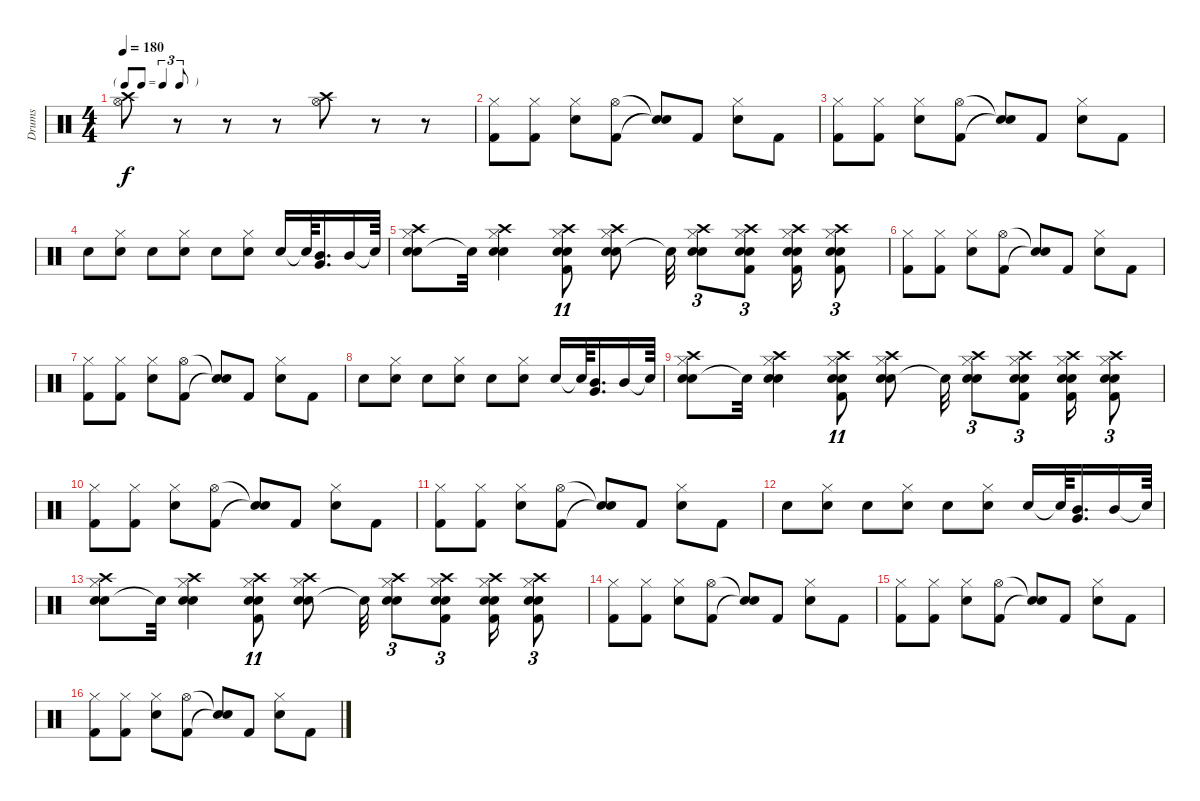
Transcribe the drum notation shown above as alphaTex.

\track ("Drums" "Drums") {instrument percussion}
\staff {score}
\articulation defaults
\ts (4 4)
\tf triplet8th
\tempo 180
\clef neutral
\ks c
("Hi-Hat (open)" "Crash high (hit)").8{dy f} r.8 r.8 r.8 ("Hi-Hat (open)" "Crash high (hit)").8 r.8 r.8 |
("Hi-Hat (closed)" "Kick (hit) 2").8 ("Hi-Hat (closed)" "Kick (hit) 2").8 ("Hi-Hat (closed)" "Electric Snare (hit)").8 ("Hi-Hat (open)" "Kick (hit) 2").8 ("Snare (hit)"{t} "Snare (hit)"{t}).8 "Kick (hit) 2".8 ("Hi-Hat (closed)" "Electric Snare (hit)").8 "Kick (hit) 2".8 |
("Hi-Hat (closed)" "Kick (hit) 2").8 ("Hi-Hat (closed)" "Kick (hit) 2").8 ("Hi-Hat (closed)" "Electric Snare (hit)").8 ("Hi-Hat (open)" "Kick (hit) 2").8 ("Snare (hit)"{t} "Snare (hit)"{t}).8 "Kick (hit) 2".8 ("Hi-Hat (closed)" "Electric Snare (hit)").8 "Kick (hit) 2".8 |
"Snare (hit) 2".8 ("Hi-Hat (closed)" "Snare (hit) 2").8 "Snare (hit) 2".8 ("Hi-Hat (closed)" "Snare (hit) 2").8 "Snare (hit) 2".8 ("Hi-Hat (closed)" "Snare (hit) 2").8 "Snare (hit) 2".16 "Snare (hit)"{t}.64 ("Mid Tom (hit)" "Very Low Tom (hit)").16{d} "Mid Tom (hit)".16 "Snare (hit)"{t}.64 |
("Snare (hit) 2" "Hi-Hat (closed)" "Crash high (hit)" "Electric Snare (hit)").8 "Snare (hit)"{t}.32 ("Snare (hit) 2" "Hi-Hat (closed)" "Crash high (hit)" "Electric Snare (hit)").4 ("Snare (hit) 2" "Kick (hit) 2" "Hi-Hat (closed)" "Crash high (hit)" "Electric Snare (hit)").8{tu (11 8)} ("Snare (hit) 2" "Hi-Hat (closed)" "Crash high (hit)" "Electric Snare (hit)").8 "Snare (hit)"{t}.32 ("Snare (hit) 2" "Hi-Hat (closed)" "Crash high (hit)" "Electric Snare (hit)").8{tu (3 2)} ("Snare (hit) 2" "Hi-Hat (closed)" "Crash high (hit)" "Kick (hit) 2" "Electric Snare (hit)").8{tu (3 2)} ("Snare (hit) 2" "Hi-Hat (closed)" "Crash high (hit)" "Kick (hit) 2" "Electric Snare (hit)").16 ("Snare (hit) 2" "Hi-Hat (closed)" "Crash high (hit)" "Kick (hit) 2" "Electric Snare (hit)").8{tu (3 2)} |
("Hi-Hat (closed)" "Kick (hit) 2").8 ("Hi-Hat (closed)" "Kick (hit) 2").8 ("Hi-Hat (closed)" "Electric Snare (hit)").8 ("Hi-Hat (open)" "Kick (hit) 2").8 ("Snare (hit)"{t} "Snare (hit)"{t}).8 "Kick (hit) 2".8 ("Hi-Hat (closed)" "Electric Snare (hit)").8 "Kick (hit) 2".8 |
("Hi-Hat (closed)" "Kick (hit) 2").8 ("Hi-Hat (closed)" "Kick (hit) 2").8 ("Hi-Hat (closed)" "Electric Snare (hit)").8 ("Hi-Hat (open)" "Kick (hit) 2").8 ("Snare (hit)"{t} "Snare (hit)"{t}).8 "Kick (hit) 2".8 ("Hi-Hat (closed)" "Electric Snare (hit)").8 "Kick (hit) 2".8 |
"Snare (hit) 2".8 ("Hi-Hat (closed)" "Snare (hit) 2").8 "Snare (hit) 2".8 ("Hi-Hat (closed)" "Snare (hit) 2").8 "Snare (hit) 2".8 ("Hi-Hat (closed)" "Snare (hit) 2").8 "Snare (hit) 2".16 "Snare (hit)"{t}.64 ("Mid Tom (hit)" "Very Low Tom (hit)").16{d} "Mid Tom (hit)".16 "Snare (hit)"{t}.64 |
("Snare (hit) 2" "Hi-Hat (closed)" "Crash high (hit)" "Electric Snare (hit)").8 "Snare (hit)"{t}.32 ("Snare (hit) 2" "Hi-Hat (closed)" "Crash high (hit)" "Electric Snare (hit)").4 ("Snare (hit) 2" "Kick (hit) 2" "Hi-Hat (closed)" "Crash high (hit)" "Electric Snare (hit)").8{tu (11 8)} ("Snare (hit) 2" "Hi-Hat (closed)" "Crash high (hit)" "Electric Snare (hit)").8 "Snare (hit)"{t}.32 ("Snare (hit) 2" "Hi-Hat (closed)" "Crash high (hit)" "Electric Snare (hit)").8{tu (3 2)} ("Snare (hit) 2" "Hi-Hat (closed)" "Crash high (hit)" "Kick (hit) 2" "Electric Snare (hit)").8{tu (3 2)} ("Snare (hit) 2" "Hi-Hat (closed)" "Crash high (hit)" "Kick (hit) 2" "Electric Snare (hit)").16 ("Snare (hit) 2" "Hi-Hat (closed)" "Crash high (hit)" "Kick (hit) 2" "Electric Snare (hit)").8{tu (3 2)} |
("Hi-Hat (closed)" "Kick (hit) 2").8 ("Hi-Hat (closed)" "Kick (hit) 2").8 ("Hi-Hat (closed)" "Electric Snare (hit)").8 ("Hi-Hat (open)" "Kick (hit) 2").8 ("Snare (hit)"{t} "Snare (hit)"{t}).8 "Kick (hit) 2".8 ("Hi-Hat (closed)" "Electric Snare (hit)").8 "Kick (hit) 2".8 |
("Hi-Hat (closed)" "Kick (hit) 2").8 ("Hi-Hat (closed)" "Kick (hit) 2").8 ("Hi-Hat (closed)" "Electric Snare (hit)").8 ("Hi-Hat (open)" "Kick (hit) 2").8 ("Snare (hit)"{t} "Snare (hit)"{t}).8 "Kick (hit) 2".8 ("Hi-Hat (closed)" "Electric Snare (hit)").8 "Kick (hit) 2".8 |
"Snare (hit) 2".8 ("Hi-Hat (closed)" "Snare (hit) 2").8 "Snare (hit) 2".8 ("Hi-Hat (closed)" "Snare (hit) 2").8 "Snare (hit) 2".8 ("Hi-Hat (closed)" "Snare (hit) 2").8 "Snare (hit) 2".16 "Snare (hit)"{t}.64 ("Mid Tom (hit)" "Very Low Tom (hit)").16{d} "Mid Tom (hit)".16 "Snare (hit)"{t}.64 |
("Snare (hit) 2" "Hi-Hat (closed)" "Crash high (hit)" "Electric Snare (hit)").8 "Snare (hit)"{t}.32 ("Snare (hit) 2" "Hi-Hat (closed)" "Crash high (hit)" "Electric Snare (hit)").4 ("Snare (hit) 2" "Kick (hit) 2" "Hi-Hat (closed)" "Crash high (hit)" "Electric Snare (hit)").8{tu (11 8)} ("Snare (hit) 2" "Hi-Hat (closed)" "Crash high (hit)" "Electric Snare (hit)").8 "Snare (hit)"{t}.32 ("Snare (hit) 2" "Hi-Hat (closed)" "Crash high (hit)" "Electric Snare (hit)").8{tu (3 2)} ("Snare (hit) 2" "Hi-Hat (closed)" "Crash high (hit)" "Kick (hit) 2" "Electric Snare (hit)").8{tu (3 2)} ("Snare (hit) 2" "Hi-Hat (closed)" "Crash high (hit)" "Kick (hit) 2" "Electric Snare (hit)").16 ("Snare (hit) 2" "Hi-Hat (closed)" "Crash high (hit)" "Kick (hit) 2" "Electric Snare (hit)").8{tu (3 2)} |
("Hi-Hat (closed)" "Kick (hit) 2").8 ("Hi-Hat (closed)" "Kick (hit) 2").8 ("Hi-Hat (closed)" "Electric Snare (hit)").8 ("Hi-Hat (open)" "Kick (hit) 2").8 ("Snare (hit)"{t} "Snare (hit)"{t}).8 "Kick (hit) 2".8 ("Hi-Hat (closed)" "Electric Snare (hit)").8 "Kick (hit) 2".8 |
("Hi-Hat (closed)" "Kick (hit) 2").8 ("Hi-Hat (closed)" "Kick (hit) 2").8 ("Hi-Hat (closed)" "Electric Snare (hit)").8 ("Hi-Hat (open)" "Kick (hit) 2").8 ("Snare (hit)"{t} "Snare (hit)"{t}).8 "Kick (hit) 2".8 ("Hi-Hat (closed)" "Electric Snare (hit)").8 "Kick (hit) 2".8 |
("Hi-Hat (closed)" "Kick (hit) 2").8 ("Hi-Hat (closed)" "Kick (hit) 2").8 ("Hi-Hat (closed)" "Electric Snare (hit)").8 ("Hi-Hat (open)" "Kick (hit) 2").8 ("Snare (hit)"{t} "Snare (hit)"{t}).8 "Kick (hit) 2".8 ("Hi-Hat (closed)" "Electric Snare (hit)").8 "Kick (hit) 2".8
